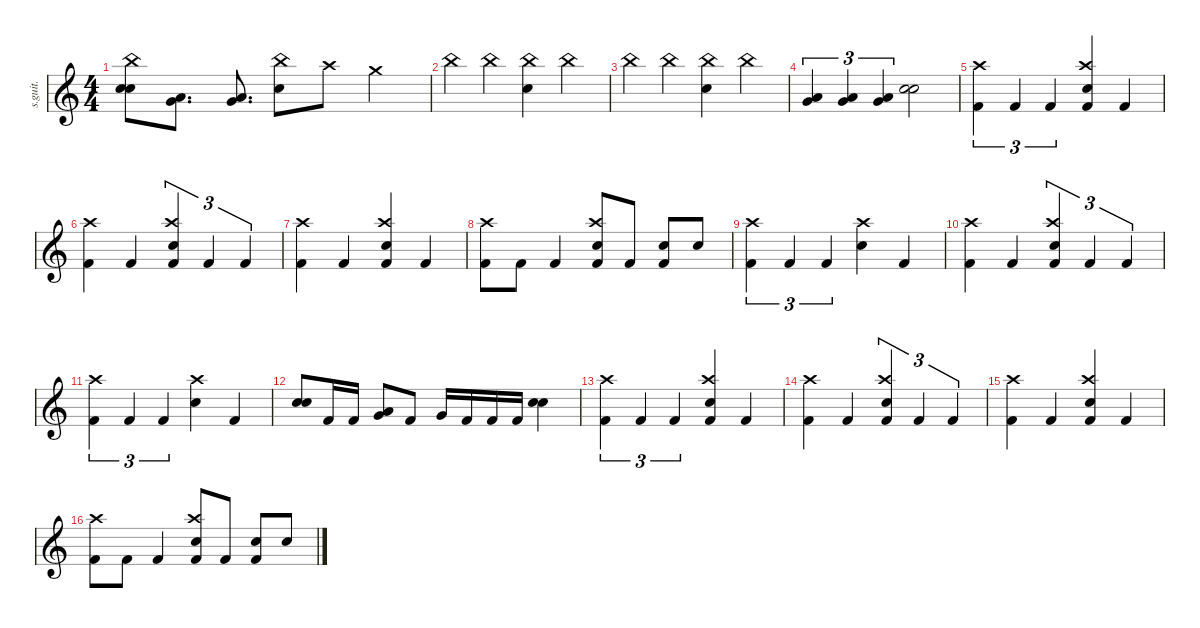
\defaultSystemsLayout 4
\hideDynamics
\bracketExtendMode nobrackets
\track ("Track 4" "s.guit.") {instrument percussion}
\staff {score}
\articulation defaults
\ts (4 4)
\tempo (163 hide)
\clef g2
\ks c
("China (hit)" "Snare (hit) 2" "Snare (hit) 2").8{dy f} ("Low Tom (hit)" "Very Low Tom (hit)").8{d} ("Low Tom (hit)" "Very Low Tom (hit)").8{d} ("China (hit)" "Snare (hit) 2").8 "Crash high (hit)".8 "Crash medium (hit)".4 |
"China (hit)".4 "China (hit)".4 ("China (hit)" "Snare (hit) 2").4 "China (hit)".4 |
"China (hit)".4 "China (hit)".4 ("China (hit)" "Snare (hit) 2").4 "China (hit)".4 |
("Low Tom (hit)" "Very Low Tom (hit)").4{tu (3 2)} ("Low Tom (hit)" "Very Low Tom (hit)").4{tu (3 2)} ("Low Tom (hit)" "Very Low Tom (hit)").4{tu (3 2)} ("Snare (hit) 2" "Snare (hit) 2").2 |
("Crash high (hit)" "Kick (hit) 2").4{tu (3 2)} "Kick (hit) 2".4{tu (3 2)} "Kick (hit) 2".4{tu (3 2)} ("Crash high (hit)" "Snare (hit) 2" "Kick (hit) 2").4 "Kick (hit) 2".4 |
("Crash high (hit)" "Kick (hit) 2").4 "Kick (hit) 2".4 ("Crash high (hit)" "Snare (hit) 2" "Kick (hit) 2").4{tu (3 2)} "Kick (hit) 2".4{tu (3 2)} "Kick (hit) 2".4{tu (3 2)} |
("Crash high (hit)" "Kick (hit) 2").4 "Kick (hit) 2".4 ("Crash high (hit)" "Snare (hit) 2" "Kick (hit) 2").4 "Kick (hit) 2".4 |
("Crash high (hit)" "Kick (hit) 2").8 "Kick (hit) 2".8 "Kick (hit) 2".4 ("Crash high (hit)" "Snare (hit) 2" "Kick (hit) 2").8 "Kick (hit) 2".8 ("Snare (hit) 2" "Kick (hit) 2").8 "Snare (hit) 2".8 |
("Crash high (hit)" "Kick (hit) 2").4{tu (3 2)} "Kick (hit) 2".4{tu (3 2)} "Kick (hit) 2".4{tu (3 2)} ("Crash high (hit)" "Snare (hit) 2").4 "Kick (hit) 2".4 |
("Crash high (hit)" "Kick (hit) 2").4 "Kick (hit) 2".4 ("Crash high (hit)" "Snare (hit) 2" "Kick (hit) 2").4{tu (3 2)} "Kick (hit) 2".4{tu (3 2)} "Kick (hit) 2".4{tu (3 2)} |
("Crash high (hit)" "Kick (hit) 2").4{tu (3 2)} "Kick (hit) 2".4{tu (3 2)} "Kick (hit) 2".4{tu (3 2)} ("Crash high (hit)" "Snare (hit) 2").4 "Kick (hit) 2".4 |
("Snare (hit) 2" "Snare (hit) 2").8 "Kick (hit) 2".16 "Kick (hit) 2".16 ("Low Tom (hit)" "Very Low Tom (hit)").8 "Kick (hit) 2".8 "Very Low Tom (hit)".16 "Kick (hit) 2".16 "Kick (hit) 2".16 "Kick (hit) 2".16 ("Snare (hit) 2" "Snare (hit) 2").4 |
("Crash high (hit)" "Kick (hit) 2").4{tu (3 2)} "Kick (hit) 2".4{tu (3 2)} "Kick (hit) 2".4{tu (3 2)} ("Crash high (hit)" "Snare (hit) 2" "Kick (hit) 2").4 "Kick (hit) 2".4 |
("Crash high (hit)" "Kick (hit) 2").4 "Kick (hit) 2".4 ("Crash high (hit)" "Snare (hit) 2" "Kick (hit) 2").4{tu (3 2)} "Kick (hit) 2".4{tu (3 2)} "Kick (hit) 2".4{tu (3 2)} |
("Crash high (hit)" "Kick (hit) 2").4 "Kick (hit) 2".4 ("Crash high (hit)" "Snare (hit) 2" "Kick (hit) 2").4 "Kick (hit) 2".4 |
("Crash high (hit)" "Kick (hit) 2").8 "Kick (hit) 2".8 "Kick (hit) 2".4 ("Crash high (hit)" "Snare (hit) 2" "Kick (hit) 2").8 "Kick (hit) 2".8 ("Snare (hit) 2" "Kick (hit) 2").8 "Snare (hit) 2".8
